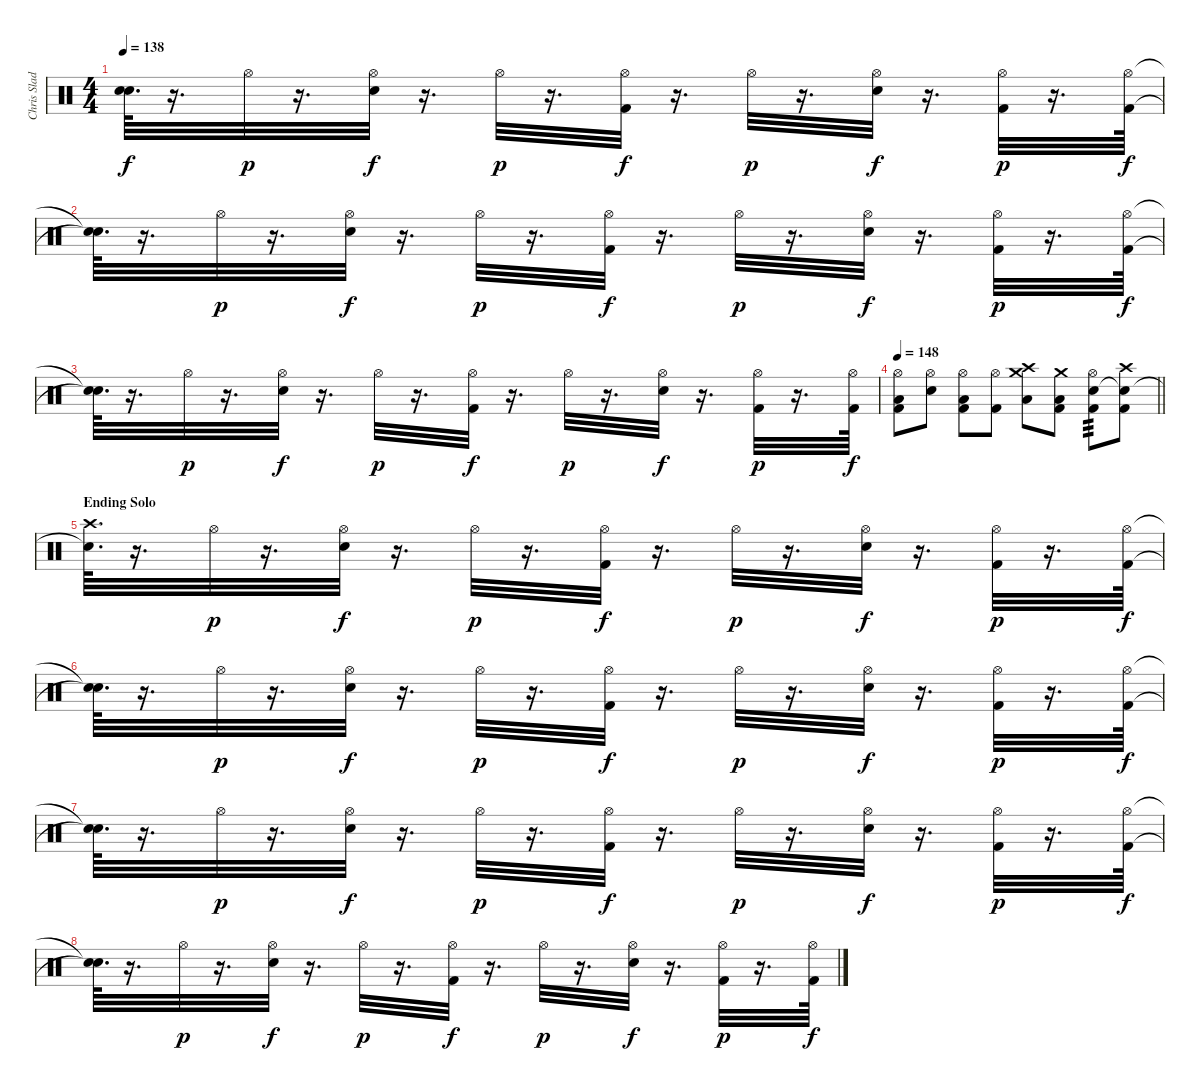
\track ("Chris Slade" "Chris Slad") {instrument percussion}
\staff {score}
\articulation defaults
\ts (4 4)
\tempo 138
\clef neutral
\ks c
("Snare (hit)"{t} "Snare (hit)"{t}).64{d dy f} r.16{d} "Hi-Hat (open)".32{dy p} r.16{d} ("Hi-Hat (open)" "Electric Snare (hit)").32{dy f} r.16{d} "Hi-Hat (open)".32{dy p} r.16{d} ("Hi-Hat (open)" "Kick (hit) 2").32{dy f} r.16{d} "Hi-Hat (open)".32{dy p} r.16{d} ("Hi-Hat (open)" "Electric Snare (hit)").32{dy f} r.16{d} ("Hi-Hat (open)" "Kick (hit) 2").32{dy p} r.16{d} ("Hi-Hat (open)" "Kick (hit) 2").64{dy f} |
("Snare (hit)"{t} "Snare (hit)"{t}).64{d} r.16{d} "Hi-Hat (open)".32{dy p} r.16{d} ("Hi-Hat (open)" "Electric Snare (hit)").32{dy f} r.16{d} "Hi-Hat (open)".32{dy p} r.16{d} ("Hi-Hat (open)" "Kick (hit) 2").32{dy f} r.16{d} "Hi-Hat (open)".32{dy p} r.16{d} ("Hi-Hat (open)" "Electric Snare (hit)").32{dy f} r.16{d} ("Hi-Hat (open)" "Kick (hit) 2").32{dy p} r.16{d} ("Hi-Hat (open)" "Kick (hit) 2").64{dy f} |
("Snare (hit)"{t} "Snare (hit)"{t}).64{d} r.16{d} "Hi-Hat (open)".32{dy p} r.16{d} ("Hi-Hat (open)" "Electric Snare (hit)").32{dy f} r.16{d} "Hi-Hat (open)".32{dy p} r.16{d} ("Hi-Hat (open)" "Kick (hit) 2").32{dy f} r.16{d} "Hi-Hat (open)".32{dy p} r.16{d} ("Hi-Hat (open)" "Electric Snare (hit)").32{dy f} r.16{d} ("Hi-Hat (open)" "Kick (hit) 2").32{dy p} r.16{d} ("Hi-Hat (open)" "Kick (hit) 2").64{dy f} |
\tempo 148
\barLineRight lightlight
("Hi-Hat (open)" "Low Tom (hit)" "Kick (hit) 2").8 ("Hi-Hat (open)" "Electric Snare (hit)").8 ("Hi-Hat (open)" "Low Tom (hit)" "Kick (hit) 2").8 ("Hi-Hat (open)" "Kick (hit) 2").8 ("Crash medium (hit)" "Crash high (hit)" "Low Tom (hit)").8 ("Crash medium (hit)" "Low Tom (hit)" "Kick (hit) 2").8 ("Hi-Hat (open)" "Electric Snare (hit)" "Kick (hit) 2").8{tp 3} ("Crash high (hit)" "Electric Snare (hit)"{t} "Kick (hit) 2").8 |
\section ("" "Ending Solo")
("Crash high (hit)" "Snare (hit)"{t}).64{d} r.16{d} "Hi-Hat (open)".32{dy p} r.16{d} ("Hi-Hat (open)" "Electric Snare (hit)").32{dy f} r.16{d} "Hi-Hat (open)".32{dy p} r.16{d} ("Hi-Hat (open)" "Kick (hit) 2").32{dy f} r.16{d} "Hi-Hat (open)".32{dy p} r.16{d} ("Hi-Hat (open)" "Electric Snare (hit)").32{dy f} r.16{d} ("Hi-Hat (open)" "Kick (hit) 2").32{dy p} r.16{d} ("Hi-Hat (open)" "Kick (hit) 2").64{dy f} |
("Snare (hit)"{t} "Snare (hit)"{t}).64{d} r.16{d} "Hi-Hat (open)".32{dy p} r.16{d} ("Hi-Hat (open)" "Electric Snare (hit)").32{dy f} r.16{d} "Hi-Hat (open)".32{dy p} r.16{d} ("Hi-Hat (open)" "Kick (hit) 2").32{dy f} r.16{d} "Hi-Hat (open)".32{dy p} r.16{d} ("Hi-Hat (open)" "Electric Snare (hit)").32{dy f} r.16{d} ("Hi-Hat (open)" "Kick (hit) 2").32{dy p} r.16{d} ("Hi-Hat (open)" "Kick (hit) 2").64{dy f} |
("Snare (hit)"{t} "Snare (hit)"{t}).64{d} r.16{d} "Hi-Hat (open)".32{dy p} r.16{d} ("Hi-Hat (open)" "Electric Snare (hit)").32{dy f} r.16{d} "Hi-Hat (open)".32{dy p} r.16{d} ("Hi-Hat (open)" "Kick (hit) 2").32{dy f} r.16{d} "Hi-Hat (open)".32{dy p} r.16{d} ("Hi-Hat (open)" "Electric Snare (hit)").32{dy f} r.16{d} ("Hi-Hat (open)" "Kick (hit) 2").32{dy p} r.16{d} ("Hi-Hat (open)" "Kick (hit) 2").64{dy f} |
("Snare (hit)"{t} "Snare (hit)"{t}).64{d} r.16{d} "Hi-Hat (open)".32{dy p} r.16{d} ("Hi-Hat (open)" "Electric Snare (hit)").32{dy f} r.16{d} "Hi-Hat (open)".32{dy p} r.16{d} ("Hi-Hat (open)" "Kick (hit) 2").32{dy f} r.16{d} "Hi-Hat (open)".32{dy p} r.16{d} ("Hi-Hat (open)" "Electric Snare (hit)").32{dy f} r.16{d} ("Hi-Hat (open)" "Kick (hit) 2").32{dy p} r.16{d} ("Hi-Hat (open)" "Kick (hit) 2").64{dy f}
